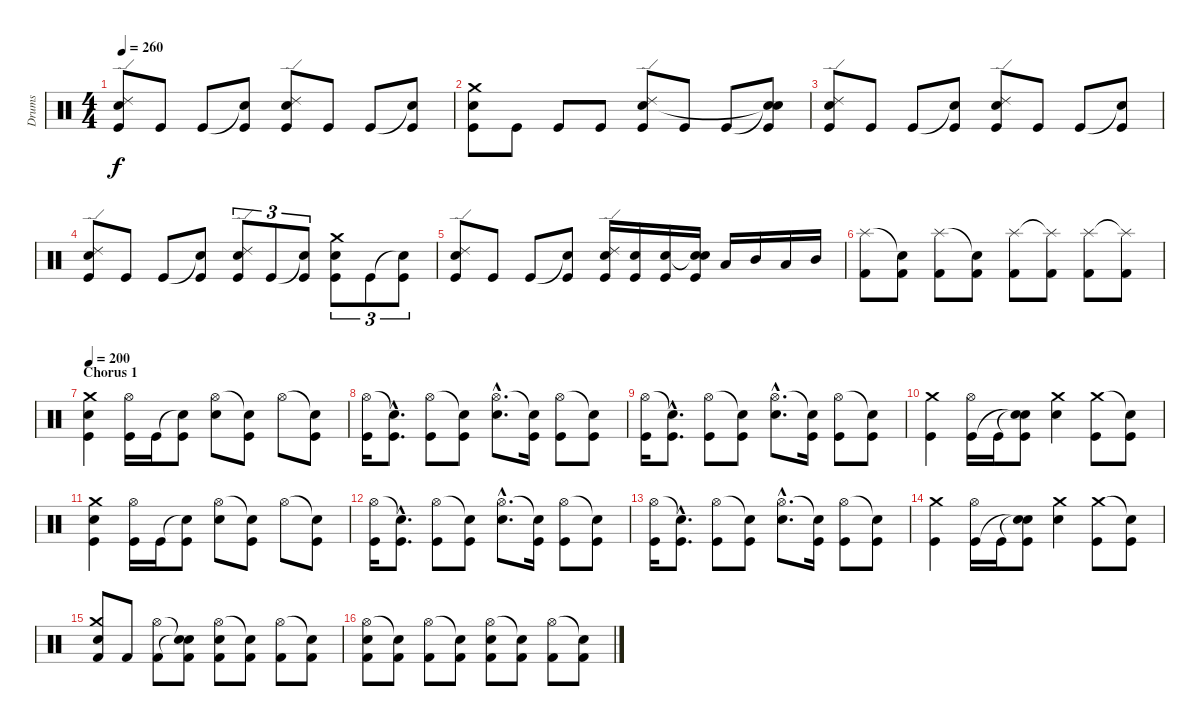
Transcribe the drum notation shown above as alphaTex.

\track ("Drums" "Drums") {instrument percussion}
\staff {score}
\articulation defaults
\ts (4 4)
\tempo 260
\clef neutral
\ks c
("Ride (edge) 2" "Electric Snare (hit)" "Kick (hit)").8{dy f} "Kick (hit)".8 "Kick (hit)".8 ("Snare (hit)"{t} "Kick (hit)").8 ("Ride (edge) 2" "Electric Snare (hit)" "Kick (hit)").8 "Kick (hit)".8 "Kick (hit)".8 ("Snare (hit)"{t} "Kick (hit)").8 |
("Crash medium (hit)" "Electric Snare (hit)" "Kick (hit)").8 "Kick (hit)".8 "Kick (hit)".8 "Kick (hit)".8 ("Ride (edge) 2" "Electric Snare (hit)" "Kick (hit)").8 "Kick (hit)".8 "Kick (hit)".8 ("Snare (hit)"{t} "Snare (hit)"{t} "Kick (hit)").8 |
("Ride (edge) 2" "Electric Snare (hit)" "Kick (hit)").8 "Kick (hit)".8 "Kick (hit)".8 ("Snare (hit)"{t} "Kick (hit)").8 ("Ride (edge) 2" "Electric Snare (hit)" "Kick (hit)").8 "Kick (hit)".8 "Kick (hit)".8 ("Snare (hit)"{t} "Kick (hit)").8 |
("Ride (edge) 2" "Electric Snare (hit)" "Kick (hit)").8 "Kick (hit)".8 "Kick (hit)".8 ("Snare (hit)"{t} "Kick (hit)").8 ("Ride (edge) 2" "Electric Snare (hit)" "Kick (hit)").8{tu (3 2)} "Kick (hit)".8{tu (3 2)} ("Snare (hit)"{t} "Kick (hit)").8{tu (3 2)} ("Crash medium (hit)" "Electric Snare (hit)" "Kick (hit)").8{tu (3 2)} "Kick (hit)".8{tu (3 2)} ("Snare (hit)"{t} "Kick (hit)").8{tu (3 2)} |
("Ride (edge) 2" "Electric Snare (hit)" "Kick (hit)").8 "Kick (hit)".8 "Kick (hit)".8 ("Snare (hit)"{t} "Kick (hit)").8 ("Ride (edge) 2" "Electric Snare (hit)" "Kick (hit)").16 ("Electric Snare (hit)" "Kick (hit)").16 ("Electric Snare (hit)" "Kick (hit)").16 ("Snare (hit)"{t} "Electric Snare (hit)" "Kick (hit)").16 "Low Tom (hit)".16 "Mid Tom (hit)".16 "Low Tom (hit)".16 "Mid Tom (hit)".16 |
("Splash (hit)" "Kick (hit) 2").8 ("Snare (hit)"{t} "Kick (hit) 2").8 ("Splash (hit)" "Kick (hit) 2").8 ("Snare (hit)"{t} "Kick (hit) 2").8 ("Splash (hit)" "Kick (hit) 2").8 ("Splash (hit)"{t} "Kick (hit) 2").8 ("Splash (hit)" "Kick (hit) 2").8 ("Splash (hit)"{t} "Kick (hit) 2").8 |
\section ("" "Chorus 1")
\tempo 200
("Crash medium (hit)" "Electric Snare (hit)" "Kick (hit)").4 ("Hi-Hat (open)" "Kick (hit)").16 "Kick (hit)".16 ("Snare (hit)"{t} "Kick (hit)").8 ("Hi-Hat (open)" "Electric Snare (hit)").8 ("Snare (hit)"{t} "Kick (hit)").8 "Hi-Hat (open)".8 ("Snare (hit)"{t} "Kick (hit)").8 |
("Hi-Hat (open)" "Kick (hit)").16 ("Snare (hit)"{hac t} "Kick (hit)"{hac}).8{d} ("Hi-Hat (open)" "Kick (hit)").8 ("Snare (hit)"{t} "Kick (hit)").8 ("Hi-Hat (open)"{hac} "Electric Snare (hit)"{hac}).8{d} ("Snare (hit)"{t} "Kick (hit)").16 ("Hi-Hat (open)" "Kick (hit)").8 ("Snare (hit)"{t} "Kick (hit)").8 |
("Hi-Hat (open)" "Kick (hit)").16 ("Snare (hit)"{hac t} "Kick (hit)"{hac}).8{d} ("Hi-Hat (open)" "Kick (hit)").8 ("Snare (hit)"{t} "Kick (hit)").8 ("Hi-Hat (open)"{hac} "Electric Snare (hit)"{hac}).8{d} ("Snare (hit)"{t} "Kick (hit)").16 ("Hi-Hat (open)" "Kick (hit)").8 ("Snare (hit)"{t} "Kick (hit)").8 |
("Crash medium (hit)" "Kick (hit)").4 ("Hi-Hat (open)" "Kick (hit)").16 "Kick (hit)".16 ("Snare (hit)"{t} "Snare (hit)"{t} "Kick (hit)").8 ("Crash medium (hit)" "Electric Snare (hit)").4 ("Crash medium (hit)" "Kick (hit)").8 ("Snare (hit)"{t} "Kick (hit)").8 |
("Crash medium (hit)" "Electric Snare (hit)" "Kick (hit)").4 ("Hi-Hat (open)" "Kick (hit)").16 "Kick (hit)".16 ("Snare (hit)"{t} "Kick (hit)").8 ("Hi-Hat (open)" "Electric Snare (hit)").8 ("Snare (hit)"{t} "Kick (hit)").8 "Hi-Hat (open)".8 ("Snare (hit)"{t} "Kick (hit)").8 |
("Hi-Hat (open)" "Kick (hit)").16 ("Snare (hit)"{hac t} "Kick (hit)"{hac}).8{d} ("Hi-Hat (open)" "Kick (hit)").8 ("Snare (hit)"{t} "Kick (hit)").8 ("Hi-Hat (open)"{hac} "Electric Snare (hit)"{hac}).8{d} ("Snare (hit)"{t} "Kick (hit)").16 ("Hi-Hat (open)" "Kick (hit)").8 ("Snare (hit)"{t} "Kick (hit)").8 |
("Hi-Hat (open)" "Kick (hit)").16 ("Snare (hit)"{hac t} "Kick (hit)"{hac}).8{d} ("Hi-Hat (open)" "Kick (hit)").8 ("Snare (hit)"{t} "Kick (hit)").8 ("Hi-Hat (open)"{hac} "Electric Snare (hit)"{hac}).8{d} ("Snare (hit)"{t} "Kick (hit)").16 ("Hi-Hat (open)" "Kick (hit)").8 ("Snare (hit)"{t} "Kick (hit)").8 |
("Crash medium (hit)" "Kick (hit)").4 ("Hi-Hat (open)" "Kick (hit)").16 "Kick (hit)".16 ("Snare (hit)"{t} "Snare (hit)"{t} "Kick (hit)").8 ("Crash medium (hit)" "Electric Snare (hit)").4 ("Crash medium (hit)" "Kick (hit)").8 ("Snare (hit)"{t} "Kick (hit)").8 |
("Crash medium (hit)" "Electric Snare (hit)" "Kick (hit) 2").8 "Kick (hit) 2".8 ("Hi-Hat (open)" "Kick (hit) 2").8 ("Snare (hit)"{t} "Snare (hit)"{t} "Kick (hit) 2").8 ("Hi-Hat (open)" "Electric Snare (hit)" "Kick (hit) 2").8 ("Snare (hit)"{t} "Kick (hit) 2").8 ("Hi-Hat (open)" "Kick (hit) 2").8 ("Snare (hit)"{t} "Kick (hit) 2").8 |
("Hi-Hat (open)" "Electric Snare (hit)" "Kick (hit) 2").8 ("Snare (hit)"{t} "Kick (hit) 2").8 ("Hi-Hat (open)" "Kick (hit) 2").8 ("Snare (hit)"{t} "Kick (hit) 2").8 ("Hi-Hat (open)" "Electric Snare (hit)" "Kick (hit) 2").8 ("Snare (hit)"{t} "Kick (hit) 2").8 ("Hi-Hat (open)" "Kick (hit) 2").8 ("Snare (hit)"{t} "Kick (hit) 2").8
